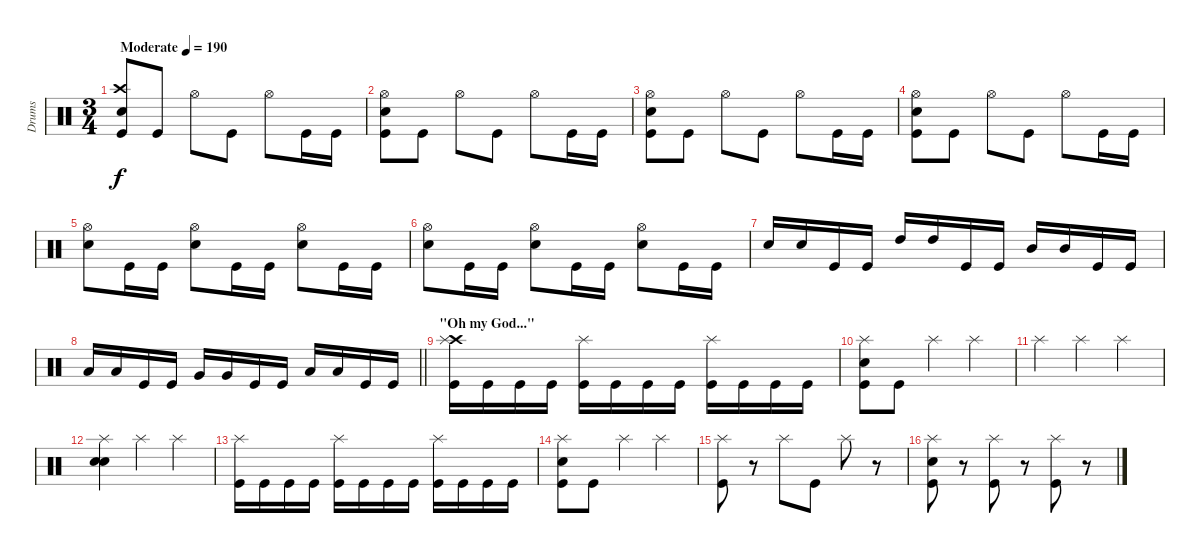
\track ("Drums" "Drums") {instrument percussion}
\staff {score}
\articulation defaults
\ts (3 4)
\tempo (190 "Moderate")
\clef neutral
\ks c
("Kick (hit)" "Crash high (hit)" "Snare (hit) 2").8{dy f} "Kick (hit)".8 "Hi-Hat (open)".8 "Kick (hit)".8 "Hi-Hat (open)".8 "Kick (hit)".16 "Kick (hit)".16 |
("Kick (hit)" "Hi-Hat (open)" "Snare (hit) 2").8 "Kick (hit)".8 "Hi-Hat (open)".8 "Kick (hit)".8 "Hi-Hat (open)".8 "Kick (hit)".16 "Kick (hit)".16 |
("Kick (hit)" "Hi-Hat (open)" "Snare (hit) 2").8 "Kick (hit)".8 "Hi-Hat (open)".8 "Kick (hit)".8 "Hi-Hat (open)".8 "Kick (hit)".16 "Kick (hit)".16 |
("Kick (hit)" "Hi-Hat (open)" "Snare (hit) 2").8 "Kick (hit)".8 "Hi-Hat (open)".8 "Kick (hit)".8 "Hi-Hat (open)".8 "Kick (hit)".16 "Kick (hit)".16 |
("Snare (hit) 2" "Hi-Hat (open)").8 "Kick (hit)".16 "Kick (hit)".16 ("Snare (hit) 2" "Hi-Hat (open)").8 "Kick (hit)".16 "Kick (hit)".16 ("Snare (hit) 2" "Hi-Hat (open)").8 "Kick (hit)".16 "Kick (hit)".16 |
("Snare (hit) 2" "Hi-Hat (open)").8 "Kick (hit)".16 "Kick (hit)".16 ("Snare (hit) 2" "Hi-Hat (open)").8 "Kick (hit)".16 "Kick (hit)".16 ("Snare (hit) 2" "Hi-Hat (open)").8 "Kick (hit)".16 "Kick (hit)".16 |
"Snare (hit) 2".16 "Snare (hit) 2".16 "Kick (hit)".16 "Kick (hit)".16 "High Tom (hit)".16 "High Tom (hit)".16 "Kick (hit)".16 "Kick (hit)".16 "Mid Tom (hit)".16 "Mid Tom (hit)".16 "Kick (hit)".16 "Kick (hit)".16 |
\barLineRight lightlight "Low Tom (hit)".16 "Low Tom (hit)".16 "Kick (hit)".16 "Kick (hit)".16 "Very Low Tom (hit)".16 "Very Low Tom (hit)".16 "Kick (hit)".16 "Kick (hit)".16 "Low Floor Tom (hit)".16 "Low Floor Tom (hit)".16 "Kick (hit)".16 "Kick (hit)".16
|
\section ("" "\"Oh my God...\"")
("Kick (hit)" "Crash high (hit)" "Splash (hit)").16 "Kick (hit)".16 "Kick (hit)".16 "Kick (hit)".16 ("Kick (hit)" "Splash (hit)").16 "Kick (hit)".16 "Kick (hit)".16 "Kick (hit)".16 ("Kick (hit)" "Splash (hit)").16 "Kick (hit)".16 "Kick (hit)".16 "Kick (hit)".16 |
("Kick (hit)" "Splash (hit)" "Snare (hit) 2").8 "Kick (hit)".8 "Splash (hit)".4 "Splash (hit)".4 |
"Splash (hit)".4 "Splash (hit)".4 "Splash (hit)".4 |
("Splash (hit)" "Snare (hit) 2" "Snare (hit) 2").4 "Splash (hit)".4 "Splash (hit)".4 |
("Kick (hit)" "Splash (hit)").16 "Kick (hit)".16 "Kick (hit)".16 "Kick (hit)".16 ("Kick (hit)" "Splash (hit)").16 "Kick (hit)".16 "Kick (hit)".16 "Kick (hit)".16 ("Kick (hit)" "Splash (hit)").16 "Kick (hit)".16 "Kick (hit)".16 "Kick (hit)".16 |
("Kick (hit)" "Splash (hit)" "Snare (hit) 2").8 "Kick (hit)".8 "Splash (hit)".4 "Splash (hit)".4 |
("Kick (hit)" "Splash (hit)").8 r.8 "Splash (hit)".8 "Kick (hit)".8 "Splash (hit)".8 r.8 |
("Kick (hit)" "Splash (hit)" "Snare (hit) 2").8 r.8 ("Kick (hit)" "Splash (hit)").8 r.8 ("Kick (hit)" "Splash (hit)").8 r.8
